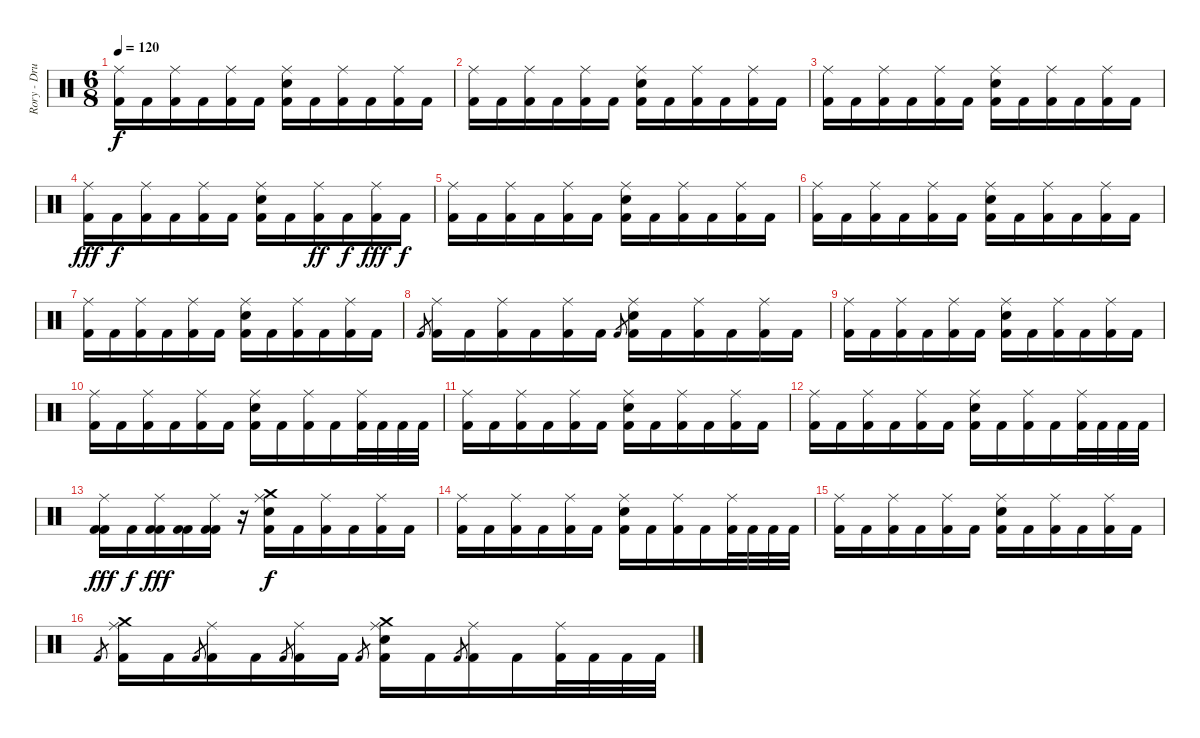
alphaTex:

\track ("Rory - Drums" "Rory - Dru") {instrument percussion}
\staff {score}
\articulation defaults
\ts (6 8)
\tempo 120
\clef neutral
\ks c
("Kick (hit) 2" "Ride (middle)").16{dy f} "Kick (hit) 2".16 ("Kick (hit) 2" "Ride (middle)").16 "Kick (hit) 2".16 ("Kick (hit) 2" "Ride (middle)").16 "Kick (hit) 2".16 ("Kick (hit) 2" "Electric Snare (hit)" "Ride (middle)").16 "Kick (hit) 2".16 ("Kick (hit) 2" "Ride (middle)").16 "Kick (hit) 2".16 ("Kick (hit) 2" "Ride (middle)").16 "Kick (hit) 2".16 |
("Kick (hit) 2" "Ride (middle)").16 "Kick (hit) 2".16 ("Kick (hit) 2" "Ride (middle)").16 "Kick (hit) 2".16 ("Kick (hit) 2" "Ride (middle)").16 "Kick (hit) 2".16 ("Kick (hit) 2" "Electric Snare (hit)" "Ride (middle)").16 "Kick (hit) 2".16 ("Kick (hit) 2" "Ride (middle)").16 "Kick (hit) 2".16 ("Kick (hit) 2" "Ride (middle)").16 "Kick (hit) 2".16 |
("Kick (hit) 2" "Ride (middle)").16 "Kick (hit) 2".16 ("Kick (hit) 2" "Ride (middle)").16 "Kick (hit) 2".16 ("Kick (hit) 2" "Ride (middle)").16 "Kick (hit) 2".16 ("Kick (hit) 2" "Electric Snare (hit)" "Ride (middle)").16 "Kick (hit) 2".16 ("Kick (hit) 2" "Ride (middle)").16 "Kick (hit) 2".16 ("Kick (hit) 2" "Ride (middle)").16 "Kick (hit) 2".16 |
("Kick (hit) 2" "Ride (middle)").16{dy fff} "Kick (hit) 2".16{dy f} ("Kick (hit) 2" "Ride (middle)").16 "Kick (hit) 2".16 ("Kick (hit) 2" "Ride (middle)").16 "Kick (hit) 2".16 ("Kick (hit) 2" "Electric Snare (hit)" "Ride (middle)").16 "Kick (hit) 2".16 ("Kick (hit) 2" "Ride (middle)").16{dy ff} "Kick (hit) 2".16{dy f} ("Kick (hit) 2" "Ride (middle)").16{dy fff} "Kick (hit) 2".16{dy f} |
("Kick (hit) 2" "Ride (middle)").16 "Kick (hit) 2".16 ("Kick (hit) 2" "Ride (middle)").16 "Kick (hit) 2".16 ("Kick (hit) 2" "Ride (middle)").16 "Kick (hit) 2".16 ("Kick (hit) 2" "Electric Snare (hit)" "Ride (middle)").16 "Kick (hit) 2".16 ("Kick (hit) 2" "Ride (middle)").16 "Kick (hit) 2".16 ("Kick (hit) 2" "Ride (middle)").16 "Kick (hit) 2".16 |
("Kick (hit) 2" "Ride (middle)").16 "Kick (hit) 2".16 ("Kick (hit) 2" "Ride (middle)").16 "Kick (hit) 2".16 ("Kick (hit) 2" "Ride (middle)").16 "Kick (hit) 2".16 ("Kick (hit) 2" "Electric Snare (hit)" "Ride (middle)").16 "Kick (hit) 2".16 ("Kick (hit) 2" "Ride (middle)").16 "Kick (hit) 2".16 ("Kick (hit) 2" "Ride (middle)").16 "Kick (hit) 2".16 |
("Kick (hit) 2" "Ride (middle)").16 "Kick (hit) 2".16 ("Kick (hit) 2" "Ride (middle)").16 "Kick (hit) 2".16 ("Kick (hit) 2" "Ride (middle)").16 "Kick (hit) 2".16 ("Kick (hit) 2" "Electric Snare (hit)" "Ride (middle)").16 "Kick (hit) 2".16 ("Kick (hit) 2" "Ride (middle)").16 "Kick (hit) 2".16 ("Kick (hit) 2" "Ride (middle)").16 "Kick (hit) 2".16 |
"Kick (hit) 2".8{gr} ("Kick (hit) 2" "Ride (middle)").16 "Kick (hit) 2".16 ("Kick (hit) 2" "Ride (middle)").16 "Kick (hit) 2".16 ("Kick (hit) 2" "Ride (middle)").16 "Kick (hit) 2".16 "Kick (hit) 2".8{gr} ("Kick (hit) 2" "Electric Snare (hit)" "Ride (middle)").16 "Kick (hit) 2".16 ("Kick (hit) 2" "Ride (middle)").16 "Kick (hit) 2".16 ("Kick (hit) 2" "Ride (middle)").16 "Kick (hit) 2".16 |
("Kick (hit) 2" "Ride (middle)").16 "Kick (hit) 2".16 ("Kick (hit) 2" "Ride (middle)").16 "Kick (hit) 2".16 ("Kick (hit) 2" "Ride (middle)").16 "Kick (hit) 2".16 ("Kick (hit) 2" "Electric Snare (hit)" "Ride (middle)").16 "Kick (hit) 2".16 ("Kick (hit) 2" "Ride (middle)").16 "Kick (hit) 2".16 ("Kick (hit) 2" "Ride (middle)").16 "Kick (hit) 2".16 |
("Kick (hit) 2" "Ride (middle)").16 "Kick (hit) 2".16 ("Kick (hit) 2" "Ride (middle)").16 "Kick (hit) 2".16 ("Kick (hit) 2" "Ride (middle)").16 "Kick (hit) 2".16 ("Kick (hit) 2" "Electric Snare (hit)" "Ride (middle)").16 "Kick (hit) 2".16 ("Kick (hit) 2" "Ride (middle)").16 "Kick (hit) 2".16 ("Kick (hit) 2" "Ride (middle)").32 "Kick (hit) 2".32 "Kick (hit) 2".32 "Kick (hit) 2".32 |
("Kick (hit) 2" "Ride (middle)").16 "Kick (hit) 2".16 ("Kick (hit) 2" "Ride (middle)").16 "Kick (hit) 2".16 ("Kick (hit) 2" "Ride (middle)").16 "Kick (hit) 2".16 ("Kick (hit) 2" "Electric Snare (hit)" "Ride (middle)").16 "Kick (hit) 2".16 ("Kick (hit) 2" "Ride (middle)").16 "Kick (hit) 2".16 ("Kick (hit) 2" "Ride (middle)").16 "Kick (hit) 2".16 |
("Kick (hit) 2" "Ride (middle)").16 "Kick (hit) 2".16 ("Kick (hit) 2" "Ride (middle)").16 "Kick (hit) 2".16 ("Kick (hit) 2" "Ride (middle)").16 "Kick (hit) 2".16 ("Kick (hit) 2" "Electric Snare (hit)" "Ride (middle)").16 "Kick (hit) 2".16 ("Kick (hit) 2" "Ride (middle)").16 "Kick (hit) 2".16 ("Kick (hit) 2" "Ride (middle)").32 "Kick (hit) 2".32 "Kick (hit) 2".32 "Kick (hit) 2".32 |
("Kick (hit) 2" "Kick (hit) 2" "Ride (middle)").16{dy fff} "Kick (hit) 2".16{dy f} ("Kick (hit) 2" "Kick (hit) 2" "Ride (middle)").16{dy fff} ("Kick (hit) 2" "Kick (hit) 2").16 ("Kick (hit) 2" "Kick (hit) 2" "Ride (middle)").16 r.16 ("Kick (hit) 2" "Crash medium (hit)" "Electric Snare (hit)" "Ride (middle)").16{dy f} "Kick (hit) 2".16 ("Kick (hit) 2" "Ride (middle)").16 "Kick (hit) 2".16 ("Kick (hit) 2" "Ride (middle)").16 "Kick (hit) 2".16 |
("Kick (hit) 2" "Ride (middle)").16 "Kick (hit) 2".16 ("Kick (hit) 2" "Ride (middle)").16 "Kick (hit) 2".16 ("Kick (hit) 2" "Ride (middle)").16 "Kick (hit) 2".16 ("Kick (hit) 2" "Electric Snare (hit)" "Ride (middle)").16 "Kick (hit) 2".16 ("Kick (hit) 2" "Ride (middle)").16 "Kick (hit) 2".16 ("Kick (hit) 2" "Ride (middle)").32 "Kick (hit) 2".32 "Kick (hit) 2".32 "Kick (hit) 2".32 |
("Kick (hit) 2" "Ride (middle)").16 "Kick (hit) 2".16 ("Kick (hit) 2" "Ride (middle)").16 "Kick (hit) 2".16 ("Kick (hit) 2" "Ride (middle)").16 "Kick (hit) 2".16 ("Kick (hit) 2" "Electric Snare (hit)" "Ride (middle)").16 "Kick (hit) 2".16 ("Kick (hit) 2" "Ride (middle)").16 "Kick (hit) 2".16 ("Kick (hit) 2" "Ride (middle)").16 "Kick (hit) 2".16 |
"Kick (hit) 2".8{gr} ("Kick (hit) 2" "Crash medium (hit)" "Ride (middle)").16 "Kick (hit) 2".16 "Kick (hit) 2".8{gr} ("Kick (hit) 2" "Ride (middle)").16 "Kick (hit) 2".16 "Kick (hit) 2".8{gr} ("Kick (hit) 2" "Ride (middle)").16 "Kick (hit) 2".16 "Kick (hit) 2".8{gr} ("Kick (hit) 2" "Crash medium (hit)" "Electric Snare (hit)" "Ride (middle)").16 "Kick (hit) 2".16 "Kick (hit) 2".8{gr} ("Kick (hit) 2" "Ride (middle)").16 "Kick (hit) 2".16 ("Kick (hit) 2" "Ride (middle)").32 "Kick (hit) 2".32 "Kick (hit) 2".32 "Kick (hit) 2".32
